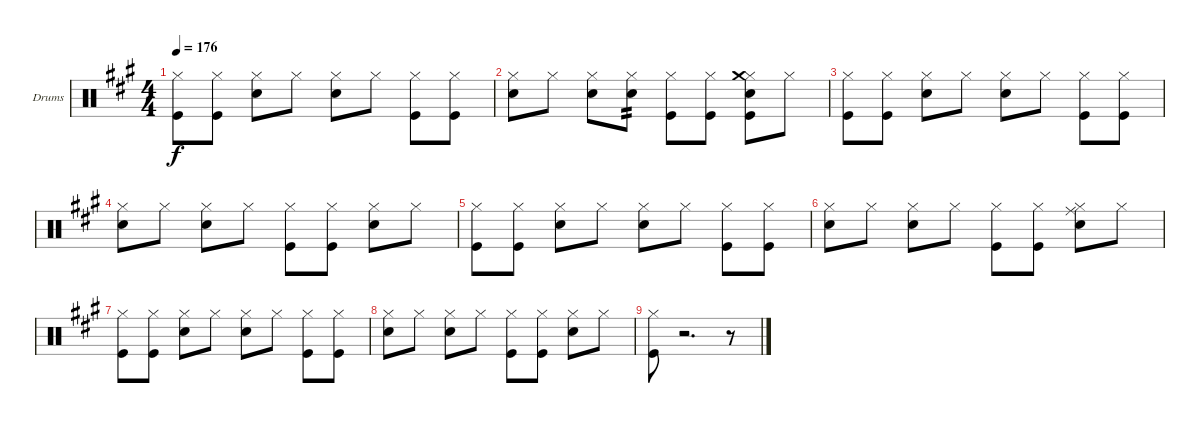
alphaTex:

\defaultSystemsLayout 4
\bracketExtendMode groupsimilarinstruments
\firstSystemTrackNameOrientation horizontal
\otherSystemsTrackNameOrientation horizontal
\track ("Drumkit" "Drums") {instrument percussion}
\staff {score}
\articulation defaults
\ts (4 4)
\tempo 176
\clef neutral
\scale
0.333333
\ks a
("Hi-Hat (closed)" "Kick (hit)").8{dy f} ("Hi-Hat (closed)" "Kick (hit)").8 ("Hi-Hat (closed)" "Snare (hit) 2").8 "Hi-Hat (closed)".8 ("Hi-Hat (closed)" "Snare (hit) 2").8 "Hi-Hat (closed)".8 ("Hi-Hat (closed)" "Kick (hit)").8 ("Hi-Hat (closed)" "Kick (hit)").8 |
\scale
0.333333 ("Hi-Hat (closed)" "Snare (hit) 2").8 "Hi-Hat (closed)".8 ("Hi-Hat (closed)" "Snare (hit) 2").8 ("Hi-Hat (closed)" "Snare (hit) 2").8{tp 2} ("Hi-Hat (closed)" "Kick (hit)").8 ("Hi-Hat (closed)" "Kick (hit)").8 ("Hi-Hat (closed)" "Crash medium (hit)" "Snare (hit) 2" "Kick (hit)").8 "Hi-Hat (closed)".8 |
\scale
0.333333 ("Hi-Hat (closed)" "Kick (hit)").8 ("Hi-Hat (closed)" "Kick (hit)").8 ("Hi-Hat (closed)" "Snare (hit) 2").8 "Hi-Hat (closed)".8 ("Hi-Hat (closed)" "Snare (hit) 2").8 "Hi-Hat (closed)".8 ("Hi-Hat (closed)" "Kick (hit)").8 ("Hi-Hat (closed)" "Kick (hit)").8 |
\scale
0.333333 ("Hi-Hat (closed)" "Snare (hit) 2").8 "Hi-Hat (closed)".8 ("Hi-Hat (closed)" "Snare (hit) 2").8 "Hi-Hat (closed)".8 ("Hi-Hat (closed)" "Kick (hit)").8 ("Hi-Hat (closed)" "Kick (hit)").8 ("Hi-Hat (closed)" "Snare (hit) 2").8 "Hi-Hat (closed)".8 |
\scale
0.333333 ("Hi-Hat (closed)" "Kick (hit)").8 ("Hi-Hat (closed)" "Kick (hit)").8 ("Hi-Hat (closed)" "Snare (hit) 2").8 "Hi-Hat (closed)".8 ("Hi-Hat (closed)" "Snare (hit) 2").8 "Hi-Hat (closed)".8 ("Hi-Hat (closed)" "Kick (hit)").8 ("Hi-Hat (closed)" "Kick (hit)").8 |
\scale
0.333333 ("Hi-Hat (closed)" "Snare (hit) 2").8 "Hi-Hat (closed)".8 ("Hi-Hat (closed)" "Snare (hit) 2").8 "Hi-Hat (closed)".8 ("Hi-Hat (closed)" "Kick (hit)").8 ("Hi-Hat (closed)" "Kick (hit)").8 ("Hi-Hat (closed)" "Ride (middle)" "Snare (hit) 2").8 "Hi-Hat (closed)".8 |
\scale
0.333333 ("Hi-Hat (closed)" "Kick (hit)").8 ("Hi-Hat (closed)" "Kick (hit)").8 ("Hi-Hat (closed)" "Snare (hit) 2").8 "Hi-Hat (closed)".8 ("Hi-Hat (closed)" "Snare (hit) 2").8 "Hi-Hat (closed)".8 ("Hi-Hat (closed)" "Kick (hit)").8 ("Hi-Hat (closed)" "Kick (hit)").8 |
("Hi-Hat (closed)" "Snare (hit) 2").8 "Hi-Hat (closed)".8 ("Hi-Hat (closed)" "Snare (hit) 2").8 "Hi-Hat (closed)".8 ("Hi-Hat (closed)" "Kick (hit)").8 ("Hi-Hat (closed)" "Kick (hit)").8 ("Hi-Hat (closed)" "Snare (hit) 2").8 "Hi-Hat (closed)".8 |
("Hi-Hat (closed)" "Kick (hit)").8 r.2{d} r.8
